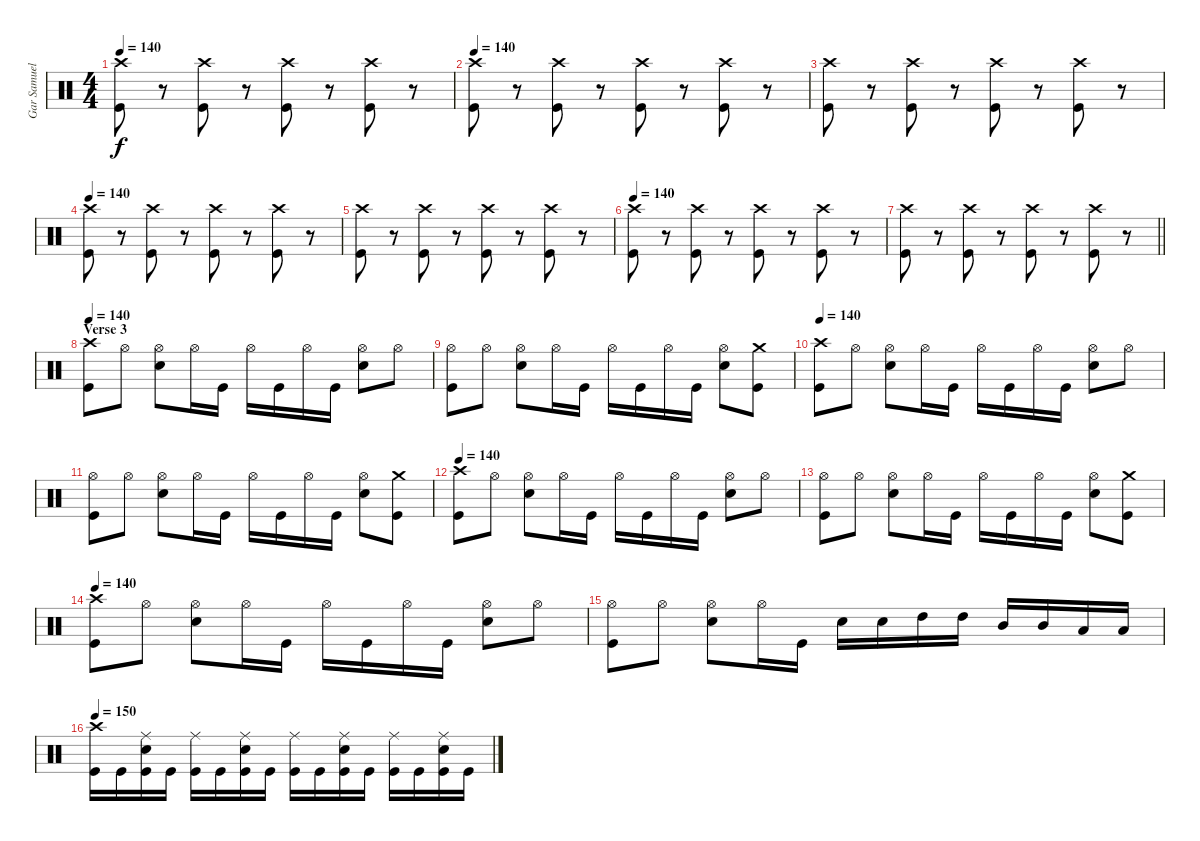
\track ("Gar Samuelson" "Gar Samuel") {instrument percussion}
\staff {score}
\articulation defaults
\ts (4 4)
\tempo 140
\clef neutral
\ks c
("Crash high (hit)" "Kick (hit)").8{dy f} r.8 ("Crash high (hit)" "Kick (hit)").8 r.8 ("Crash high (hit)" "Kick (hit)").8 r.8 ("Crash high (hit)" "Kick (hit)").8 r.8 |
\tempo 140
("Crash high (hit)" "Kick (hit)").8 r.8 ("Crash high (hit)" "Kick (hit)").8 r.8 ("Crash high (hit)" "Kick (hit)").8 r.8 ("Crash high (hit)" "Kick (hit)").8 r.8 |
("Crash high (hit)" "Kick (hit)").8 r.8 ("Crash high (hit)" "Kick (hit)").8 r.8 ("Crash high (hit)" "Kick (hit)").8 r.8 ("Crash high (hit)" "Kick (hit)").8 r.8 |
\tempo 140
("Crash high (hit)" "Kick (hit)").8 r.8 ("Crash high (hit)" "Kick (hit)").8 r.8 ("Crash high (hit)" "Kick (hit)").8 r.8 ("Crash high (hit)" "Kick (hit)").8 r.8 |
("Crash high (hit)" "Kick (hit)").8 r.8 ("Crash high (hit)" "Kick (hit)").8 r.8 ("Crash high (hit)" "Kick (hit)").8 r.8 ("Crash high (hit)" "Kick (hit)").8 r.8 |
\tempo 140
("Crash high (hit)" "Kick (hit)").8 r.8 ("Crash high (hit)" "Kick (hit)").8 r.8 ("Crash high (hit)" "Kick (hit)").8 r.8 ("Crash high (hit)" "Kick (hit)").8 r.8 |
\barLineRight lightlight
("Crash high (hit)" "Kick (hit)").8 r.8 ("Crash high (hit)" "Kick (hit)").8 r.8 ("Crash high (hit)" "Kick (hit)").8 r.8 ("Crash high (hit)" "Kick (hit)").8 r.8 |
\section ("" "Verse 3")
\tempo 140
("Crash high (hit)" "Kick (hit)").8 "Hi-Hat (open)".8 ("Hi-Hat (open)" "Snare (hit) 2").8 "Hi-Hat (open)".16 "Kick (hit)".16 "Hi-Hat (open)".16 "Kick (hit)".16 "Hi-Hat (open)".16 "Kick (hit)".16 ("Hi-Hat (open)" "Snare (hit) 2").8 "Hi-Hat (open)".8 |
("Hi-Hat (open)" "Kick (hit)").8 "Hi-Hat (open)".8 ("Hi-Hat (open)" "Snare (hit) 2").8 "Hi-Hat (open)".16 "Kick (hit)".16 "Hi-Hat (open)".16 "Kick (hit)".16 "Hi-Hat (open)".16 "Kick (hit)".16 ("Hi-Hat (open)" "Snare (hit) 2").8 ("Crash medium (hit)" "Kick (hit)").8 |
\tempo 140
("Crash high (hit)" "Kick (hit)").8 "Hi-Hat (open)".8 ("Hi-Hat (open)" "Snare (hit) 2").8 "Hi-Hat (open)".16 "Kick (hit)".16 "Hi-Hat (open)".16 "Kick (hit)".16 "Hi-Hat (open)".16 "Kick (hit)".16 ("Hi-Hat (open)" "Snare (hit) 2").8 "Hi-Hat (open)".8 |
("Hi-Hat (open)" "Kick (hit)").8 "Hi-Hat (open)".8 ("Hi-Hat (open)" "Snare (hit) 2").8 "Hi-Hat (open)".16 "Kick (hit)".16 "Hi-Hat (open)".16 "Kick (hit)".16 "Hi-Hat (open)".16 "Kick (hit)".16 ("Hi-Hat (open)" "Snare (hit) 2").8 ("Crash medium (hit)" "Kick (hit)").8 |
\tempo 140
("Crash high (hit)" "Kick (hit)").8 "Hi-Hat (open)".8 ("Hi-Hat (open)" "Snare (hit) 2").8 "Hi-Hat (open)".16 "Kick (hit)".16 "Hi-Hat (open)".16 "Kick (hit)".16 "Hi-Hat (open)".16 "Kick (hit)".16 ("Hi-Hat (open)" "Snare (hit) 2").8 "Hi-Hat (open)".8 |
("Hi-Hat (open)" "Kick (hit)").8 "Hi-Hat (open)".8 ("Hi-Hat (open)" "Snare (hit) 2").8 "Hi-Hat (open)".16 "Kick (hit)".16 "Hi-Hat (open)".16 "Kick (hit)".16 "Hi-Hat (open)".16 "Kick (hit)".16 ("Hi-Hat (open)" "Snare (hit) 2").8 ("Crash medium (hit)" "Kick (hit)").8 |
\tempo 140
("Crash high (hit)" "Kick (hit)").8 "Hi-Hat (open)".8 ("Hi-Hat (open)" "Snare (hit) 2").8 "Hi-Hat (open)".16 "Kick (hit)".16 "Hi-Hat (open)".16 "Kick (hit)".16 "Hi-Hat (open)".16 "Kick (hit)".16 ("Hi-Hat (open)" "Snare (hit) 2").8 "Hi-Hat (open)".8 |
("Hi-Hat (open)" "Kick (hit)").8 "Hi-Hat (open)".8 ("Hi-Hat (open)" "Snare (hit) 2").8 "Hi-Hat (open)".16 "Kick (hit)".16 "Snare (hit) 2".16 "Snare (hit) 2".16 "High Tom (hit)".16 "High Tom (hit)".16 "Mid Tom (hit)".16 "Mid Tom (hit)".16 "Low Tom (hit)".16 "Low Tom (hit)".16 |
\tempo 150
("Crash high (hit)" "Kick (hit)").16 "Kick (hit)".16 ("Ride (middle)" "Snare (hit) 2" "Kick (hit)").16 "Kick (hit)".16 ("Ride (middle)" "Kick (hit)").16 "Kick (hit)".16 ("Ride (middle)" "Snare (hit) 2" "Kick (hit)").16 "Kick (hit)".16 ("Ride (middle)" "Kick (hit)").16 "Kick (hit)".16 ("Ride (middle)" "Snare (hit) 2" "Kick (hit)").16 "Kick (hit)".16 ("Ride (middle)" "Kick (hit)").16 "Kick (hit)".16 ("Ride (middle)" "Snare (hit) 2" "Kick (hit)").16 "Kick (hit)".16
